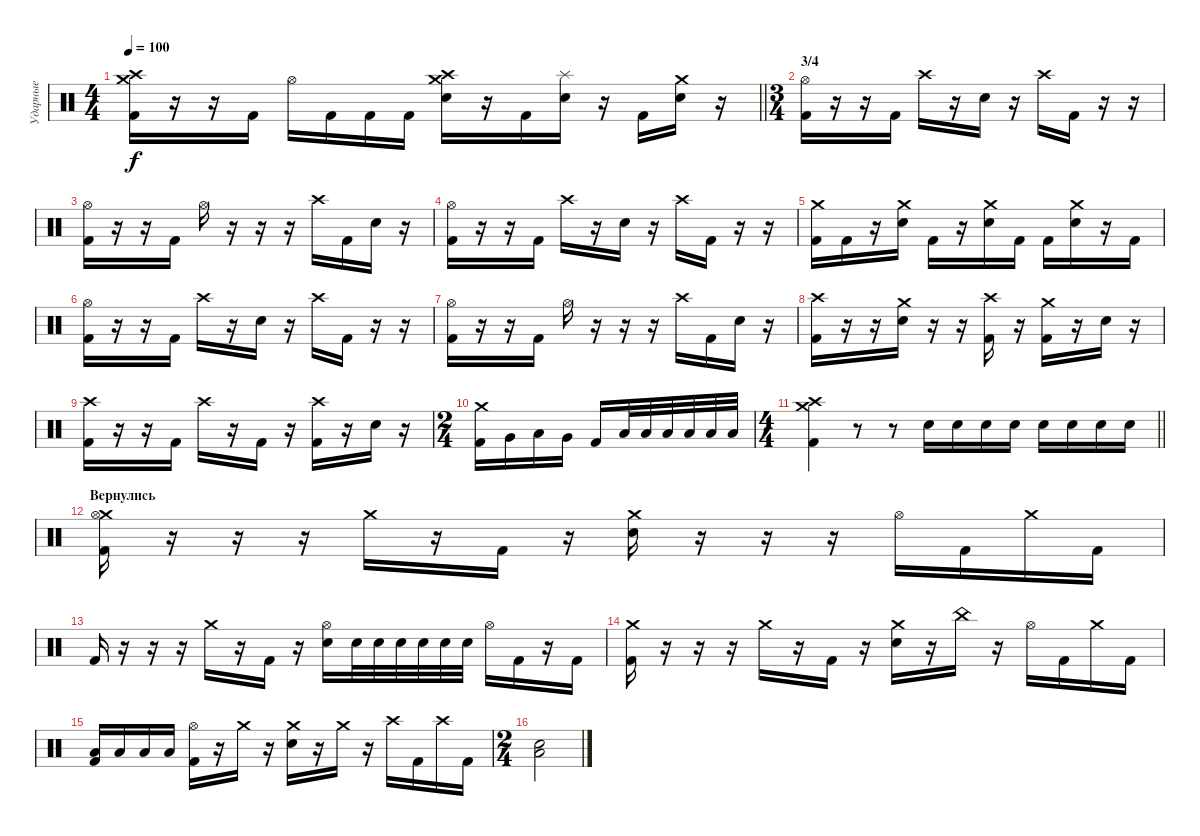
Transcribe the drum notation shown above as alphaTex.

\track ("Ударные" "Ударные") {instrument percussion}
\staff {score}
\articulation defaults
\ts (4 4)
\tempo 100
\clef neutral
\barLineRight lightlight
\ks c
("Crash high (hit)" "Crash medium (hit)" "Kick (hit) 2").16{dy f} r.16 r.16 "Kick (hit) 2".16 "Hi-Hat (open)".16 "Kick (hit) 2".16 "Kick (hit) 2".16 "Kick (hit) 2".16 ("Crash high (hit)" "Crash medium (hit)" "Snare (hit) 2").16 r.16 "Kick (hit) 2".16 ("Splash (hit)" "Snare (hit) 2").16 r.16 "Kick (hit) 2".16 ("Crash medium (hit)" "Snare (hit) 2").16 r.16 |
\ts (3 4)
\section ("" "3/4")
("Hi-Hat (open)" "Kick (hit) 2").16 r.16 r.16 "Kick (hit) 2".16 "Crash high (hit)".16 r.16 "Electric Snare (hit)".16 r.16 "Crash high (hit)".16 "Kick (hit) 2".16 r.16 r.16 |
("Hi-Hat (open)" "Kick (hit) 2").16 r.16 r.16 "Kick (hit) 2".16 "Hi-Hat (open)".16 r.16 r.16 r.16 "Crash high (hit)".16 "Kick (hit) 2".16 "Snare (hit) 2".16 r.16 |
("Hi-Hat (open)" "Kick (hit) 2").16 r.16 r.16 "Kick (hit) 2".16 "Crash high (hit)".16 r.16 "Electric Snare (hit)".16 r.16 "Crash high (hit)".16 "Kick (hit) 2".16 r.16 r.16 |
("Crash medium (hit)" "Kick (hit) 2").16 "Kick (hit) 2".16 r.16 ("Crash medium (hit)" "Snare (hit) 2").16 "Kick (hit) 2".16 r.16 ("Crash medium (hit)" "Snare (hit) 2").16 "Kick (hit) 2".16 "Kick (hit) 2".16 ("Crash medium (hit)" "Snare (hit) 2").16 r.16 "Kick (hit) 2".16 |
("Hi-Hat (open)" "Kick (hit) 2").16 r.16 r.16 "Kick (hit) 2".16 "Crash high (hit)".16 r.16 "Snare (hit) 2".16 r.16 "Crash high (hit)".16 "Kick (hit) 2".16 r.16 r.16 |
("Hi-Hat (open)" "Kick (hit) 2").16 r.16 r.16 "Kick (hit) 2".16 "Hi-Hat (open)".16 r.16 r.16 r.16 "Crash high (hit)".16 "Kick (hit) 2".16 "Snare (hit) 2".16 r.16 |
("Crash high (hit)" "Kick (hit) 2").16 r.16 r.16 ("Crash medium (hit)" "Snare (hit) 2").16 r.16 r.16 ("Crash high (hit)" "Kick (hit) 2").16 r.16 ("Crash medium (hit)" "Kick (hit) 2").16 r.16 "Snare (hit) 2".16 r.16 |
("Crash high (hit)" "Kick (hit) 2").16 r.16 r.16 "Kick (hit) 2".16 "Crash high (hit)".16 r.16 "Kick (hit) 2".16 r.16 ("Crash high (hit)" "Kick (hit) 2").16 r.16 "Snare (hit) 2".16 r.16 |
\ts (2 4)
("Crash medium (hit)" "Kick (hit) 2").16 "Very Low Tom (hit)".16 "Low Tom (hit)".16 "Very Low Tom (hit)".16 "Kick (hit) 2".16 "Low Floor Tom (hit)".32 "Low Floor Tom (hit)".32 "Low Floor Tom (hit)".32 "Low Floor Tom (hit)".32 "Low Floor Tom (hit)".32 "Low Floor Tom (hit)".32 |
\ts (4 4)
\barLineRight lightlight
("Crash high (hit)" "Crash medium (hit)" "Kick (hit) 2").4 r.8 r.8 "Snare (hit) 2".16 "Snare (hit) 2".16 "Snare (hit) 2".16 "Snare (hit) 2".16 "Snare (hit) 2".16 "Snare (hit) 2".16 "Snare (hit) 2".16 "Snare (hit) 2".16 |
\section ("" "Вернулись")
("Crash medium (hit)" "Hi-Hat (open)" "Kick (hit) 2").16 r.16 r.16 r.16 "Crash medium (hit)".16 r.16 "Kick (hit) 2".16 r.16 ("Crash medium (hit)" "Snare (hit) 2").16 r.16 r.16 r.16 "Hi-Hat (open)".16 "Kick (hit) 2".16 "Crash medium (hit)".16 "Kick (hit) 2".16 |
"Kick (hit) 2".16 r.16 r.16 r.16 "Crash medium (hit)".16 r.16 "Kick (hit) 2".16 r.16 ("Hi-Hat (open)" "Snare (hit) 2").16 "Snare (hit) 2".32 "Snare (hit) 2".32 "Snare (hit) 2".32 "Snare (hit) 2".32 "Snare (hit) 2".32 "Snare (hit) 2".32 "Hi-Hat (open)".16 "Kick (hit) 2".16 r.16 "Kick (hit) 2".16 |
("Crash medium (hit)" "Kick (hit) 2").16 r.16 r.16 r.16 "Crash medium (hit)".16 r.16 "Kick (hit) 2".16 r.16 ("Crash medium (hit)" "Snare (hit) 2").16 r.16 "China (hit)".16 r.16 "Hi-Hat (open)".16 "Kick (hit) 2".16 "Crash medium (hit)".16 "Kick (hit) 2".16 |
("Low Floor Tom (hit)" "Kick (hit) 2").16 "Low Floor Tom (hit)".16 "Low Floor Tom (hit)".16 "Low Floor Tom (hit)".16 ("Hi-Hat (open)" "Kick (hit) 2").16 r.16 "Crash medium (hit)".16 r.16 ("Crash medium (hit)" "Snare (hit) 2").16 r.16 "Crash medium (hit)".16 r.16 "Crash high (hit)".16 "Kick (hit) 2".16 "Crash high (hit)".16 "Kick (hit) 2".16 |
\ts (2 4)
("Low Floor Tom (hit)" "Snare (hit) 2").2
